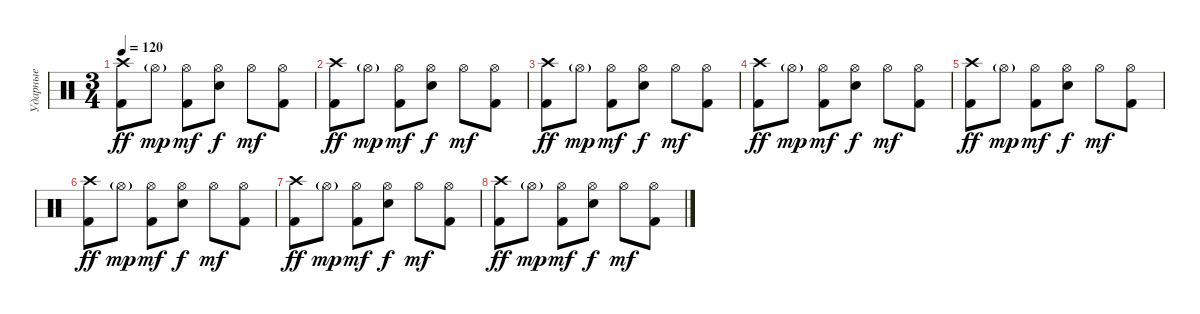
\track ("Ударные" "Ударные") {instrument percussion}
\staff {score}
\articulation defaults
\ts (3 4)
\tempo 120
\clef neutral
\ks c
("Crash high (hit)" "Kick (hit) 2").8{dy ff} "Hi-Hat (open)"{g}.8{dy mp} ("Hi-Hat (open)" "Kick (hit) 2").8{dy mf} ("Hi-Hat (open)" "Electric Snare (hit)").8{dy f} "Hi-Hat (open)".8{dy mf} ("Hi-Hat (open)" "Kick (hit) 2").8 |
("Crash high (hit)" "Kick (hit) 2").8{dy ff} "Hi-Hat (open)"{g}.8{dy mp} ("Hi-Hat (open)" "Kick (hit) 2").8{dy mf} ("Hi-Hat (open)" "Electric Snare (hit)").8{dy f} "Hi-Hat (open)".8{dy mf} ("Hi-Hat (open)" "Kick (hit) 2").8 |
("Crash high (hit)" "Kick (hit) 2").8{dy ff} "Hi-Hat (open)"{g}.8{dy mp} ("Hi-Hat (open)" "Kick (hit) 2").8{dy mf} ("Hi-Hat (open)" "Electric Snare (hit)").8{dy f} "Hi-Hat (open)".8{dy mf} ("Hi-Hat (open)" "Kick (hit) 2").8 |
("Crash high (hit)" "Kick (hit) 2").8{dy ff} "Hi-Hat (open)"{g}.8{dy mp} ("Hi-Hat (open)" "Kick (hit) 2").8{dy mf} ("Hi-Hat (open)" "Electric Snare (hit)").8{dy f} "Hi-Hat (open)".8{dy mf} ("Hi-Hat (open)" "Kick (hit) 2").8 |
("Crash high (hit)" "Kick (hit) 2").8{dy ff} "Hi-Hat (open)"{g}.8{dy mp} ("Hi-Hat (open)" "Kick (hit) 2").8{dy mf} ("Hi-Hat (open)" "Electric Snare (hit)").8{dy f} "Hi-Hat (open)".8{dy mf} ("Hi-Hat (open)" "Kick (hit) 2").8 |
("Crash high (hit)" "Kick (hit) 2").8{dy ff} "Hi-Hat (open)"{g}.8{dy mp} ("Hi-Hat (open)" "Kick (hit) 2").8{dy mf} ("Hi-Hat (open)" "Electric Snare (hit)").8{dy f} "Hi-Hat (open)".8{dy mf} ("Hi-Hat (open)" "Kick (hit) 2").8 |
("Crash high (hit)" "Kick (hit) 2").8{dy ff} "Hi-Hat (open)"{g}.8{dy mp} ("Hi-Hat (open)" "Kick (hit) 2").8{dy mf} ("Hi-Hat (open)" "Electric Snare (hit)").8{dy f} "Hi-Hat (open)".8{dy mf} ("Hi-Hat (open)" "Kick (hit) 2").8 |
("Crash high (hit)" "Kick (hit) 2").8{dy ff} "Hi-Hat (open)"{g}.8{dy mp} ("Hi-Hat (open)" "Kick (hit) 2").8{dy mf} ("Hi-Hat (open)" "Electric Snare (hit)").8{dy f} "Hi-Hat (open)".8{dy mf} ("Hi-Hat (open)" "Kick (hit) 2").8
